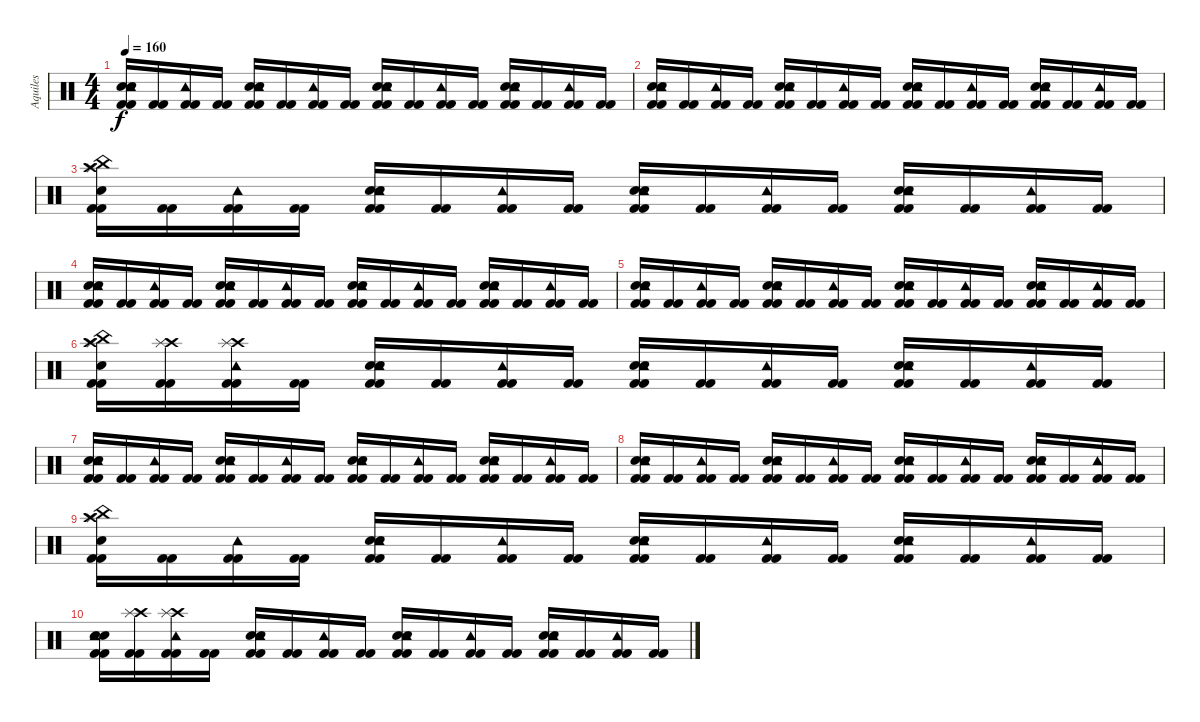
\track ("Aquiles" "Aquiles") {instrument percussion}
\staff {score}
\articulation defaults
\ts (4 4)
\tempo 160
\clef neutral
\ks c
("Kick (hit) 2" "Kick (hit) 2" "Electric Snare (hit)" "Electric Snare (hit)" "Tambourine (hit)").16{dy f} ("Kick (hit) 2" "Kick (hit) 2").16 ("Kick (hit) 2" "Kick (hit) 2" "Tambourine (hit)").16 ("Kick (hit) 2" "Kick (hit) 2").16 ("Kick (hit) 2" "Kick (hit) 2" "Electric Snare (hit)" "Electric Snare (hit)" "Tambourine (hit)").16 ("Kick (hit) 2" "Kick (hit) 2").16 ("Kick (hit) 2" "Kick (hit) 2" "Tambourine (hit)").16 ("Kick (hit) 2" "Kick (hit) 2").16 ("Kick (hit) 2" "Kick (hit) 2" "Electric Snare (hit)" "Electric Snare (hit)" "Tambourine (hit)").16 ("Kick (hit) 2" "Kick (hit) 2").16 ("Kick (hit) 2" "Kick (hit) 2" "Tambourine (hit)").16 ("Kick (hit) 2" "Kick (hit) 2").16 ("Kick (hit) 2" "Kick (hit) 2" "Electric Snare (hit)" "Electric Snare (hit)" "Tambourine (hit)").16 ("Kick (hit) 2" "Kick (hit) 2").16 ("Kick (hit) 2" "Kick (hit) 2" "Tambourine (hit)").16 ("Kick (hit) 2" "Kick (hit) 2").16 |
("Kick (hit) 2" "Kick (hit) 2" "Electric Snare (hit)" "Electric Snare (hit)" "Tambourine (hit)").16 ("Kick (hit) 2" "Kick (hit) 2").16 ("Kick (hit) 2" "Kick (hit) 2" "Tambourine (hit)").16 ("Kick (hit) 2" "Kick (hit) 2").16 ("Kick (hit) 2" "Kick (hit) 2" "Electric Snare (hit)" "Electric Snare (hit)" "Tambourine (hit)").16 ("Kick (hit) 2" "Kick (hit) 2").16 ("Kick (hit) 2" "Kick (hit) 2" "Tambourine (hit)").16 ("Kick (hit) 2" "Kick (hit) 2").16 ("Kick (hit) 2" "Kick (hit) 2" "Electric Snare (hit)" "Electric Snare (hit)" "Tambourine (hit)").16 ("Kick (hit) 2" "Kick (hit) 2").16 ("Kick (hit) 2" "Kick (hit) 2" "Tambourine (hit)").16 ("Kick (hit) 2" "Kick (hit) 2").16 ("Kick (hit) 2" "Kick (hit) 2" "Electric Snare (hit)" "Electric Snare (hit)" "Tambourine (hit)").16 ("Kick (hit) 2" "Kick (hit) 2").16 ("Kick (hit) 2" "Kick (hit) 2" "Tambourine (hit)").16 ("Kick (hit) 2" "Kick (hit) 2").16 |
("Kick (hit) 2" "Kick (hit) 2" "Electric Snare (hit)" "Crash high (hit)" "Splash (hit)" "China (hit)").16 ("Kick (hit) 2" "Kick (hit) 2").16 ("Kick (hit) 2" "Kick (hit) 2" "Tambourine (hit)").16 ("Kick (hit) 2" "Kick (hit) 2").16 ("Kick (hit) 2" "Kick (hit) 2" "Electric Snare (hit)" "Electric Snare (hit)" "Tambourine (hit)").16 ("Kick (hit) 2" "Kick (hit) 2").16 ("Kick (hit) 2" "Kick (hit) 2" "Tambourine (hit)").16 ("Kick (hit) 2" "Kick (hit) 2").16 ("Kick (hit) 2" "Kick (hit) 2" "Electric Snare (hit)" "Electric Snare (hit)" "Tambourine (hit)").16 ("Kick (hit) 2" "Kick (hit) 2").16 ("Kick (hit) 2" "Kick (hit) 2" "Tambourine (hit)").16 ("Kick (hit) 2" "Kick (hit) 2").16 ("Kick (hit) 2" "Kick (hit) 2" "Electric Snare (hit)" "Electric Snare (hit)" "Tambourine (hit)").16 ("Kick (hit) 2" "Kick (hit) 2").16 ("Kick (hit) 2" "Kick (hit) 2" "Tambourine (hit)").16 ("Kick (hit) 2" "Kick (hit) 2").16 |
("Kick (hit) 2" "Kick (hit) 2" "Electric Snare (hit)" "Electric Snare (hit)" "Tambourine (hit)").16 ("Kick (hit) 2" "Kick (hit) 2").16 ("Kick (hit) 2" "Kick (hit) 2" "Tambourine (hit)").16 ("Kick (hit) 2" "Kick (hit) 2").16 ("Kick (hit) 2" "Kick (hit) 2" "Electric Snare (hit)" "Electric Snare (hit)" "Tambourine (hit)").16 ("Kick (hit) 2" "Kick (hit) 2").16 ("Kick (hit) 2" "Kick (hit) 2" "Tambourine (hit)").16 ("Kick (hit) 2" "Kick (hit) 2").16 ("Kick (hit) 2" "Kick (hit) 2" "Electric Snare (hit)" "Electric Snare (hit)" "Tambourine (hit)").16 ("Kick (hit) 2" "Kick (hit) 2").16 ("Kick (hit) 2" "Kick (hit) 2" "Tambourine (hit)").16 ("Kick (hit) 2" "Kick (hit) 2").16 ("Kick (hit) 2" "Kick (hit) 2" "Electric Snare (hit)" "Electric Snare (hit)" "Tambourine (hit)").16 ("Kick (hit) 2" "Kick (hit) 2").16 ("Kick (hit) 2" "Kick (hit) 2" "Tambourine (hit)").16 ("Kick (hit) 2" "Kick (hit) 2").16 |
("Kick (hit) 2" "Kick (hit) 2" "Electric Snare (hit)" "Electric Snare (hit)" "Tambourine (hit)").16 ("Kick (hit) 2" "Kick (hit) 2").16 ("Kick (hit) 2" "Kick (hit) 2" "Tambourine (hit)").16 ("Kick (hit) 2" "Kick (hit) 2").16 ("Kick (hit) 2" "Kick (hit) 2" "Electric Snare (hit)" "Electric Snare (hit)" "Tambourine (hit)").16 ("Kick (hit) 2" "Kick (hit) 2").16 ("Kick (hit) 2" "Kick (hit) 2" "Tambourine (hit)").16 ("Kick (hit) 2" "Kick (hit) 2").16 ("Kick (hit) 2" "Kick (hit) 2" "Electric Snare (hit)" "Electric Snare (hit)" "Tambourine (hit)").16 ("Kick (hit) 2" "Kick (hit) 2").16 ("Kick (hit) 2" "Kick (hit) 2" "Tambourine (hit)").16 ("Kick (hit) 2" "Kick (hit) 2").16 ("Kick (hit) 2" "Kick (hit) 2" "Electric Snare (hit)" "Electric Snare (hit)" "Tambourine (hit)").16 ("Kick (hit) 2" "Kick (hit) 2").16 ("Kick (hit) 2" "Kick (hit) 2" "Tambourine (hit)").16 ("Kick (hit) 2" "Kick (hit) 2").16 |
("Kick (hit) 2" "Kick (hit) 2" "Electric Snare (hit)" "Crash high (hit)" "Splash (hit)" "China (hit)").16 ("Kick (hit) 2" "Kick (hit) 2" "Crash high (hit)" "Splash (hit)").16 ("Kick (hit) 2" "Kick (hit) 2" "Crash high (hit)" "Tambourine (hit)" "Splash (hit)").16 ("Kick (hit) 2" "Kick (hit) 2").16 ("Kick (hit) 2" "Kick (hit) 2" "Electric Snare (hit)" "Electric Snare (hit)" "Tambourine (hit)").16 ("Kick (hit) 2" "Kick (hit) 2").16 ("Kick (hit) 2" "Kick (hit) 2" "Tambourine (hit)").16 ("Kick (hit) 2" "Kick (hit) 2").16 ("Kick (hit) 2" "Kick (hit) 2" "Electric Snare (hit)" "Electric Snare (hit)" "Tambourine (hit)").16 ("Kick (hit) 2" "Kick (hit) 2").16 ("Kick (hit) 2" "Kick (hit) 2" "Tambourine (hit)").16 ("Kick (hit) 2" "Kick (hit) 2").16 ("Kick (hit) 2" "Kick (hit) 2" "Electric Snare (hit)" "Electric Snare (hit)" "Tambourine (hit)").16 ("Kick (hit) 2" "Kick (hit) 2").16 ("Kick (hit) 2" "Kick (hit) 2" "Tambourine (hit)").16 ("Kick (hit) 2" "Kick (hit) 2").16 |
("Kick (hit) 2" "Kick (hit) 2" "Electric Snare (hit)" "Electric Snare (hit)" "Tambourine (hit)").16 ("Kick (hit) 2" "Kick (hit) 2").16 ("Kick (hit) 2" "Kick (hit) 2" "Tambourine (hit)").16 ("Kick (hit) 2" "Kick (hit) 2").16 ("Kick (hit) 2" "Kick (hit) 2" "Electric Snare (hit)" "Electric Snare (hit)" "Tambourine (hit)").16 ("Kick (hit) 2" "Kick (hit) 2").16 ("Kick (hit) 2" "Kick (hit) 2" "Tambourine (hit)").16 ("Kick (hit) 2" "Kick (hit) 2").16 ("Kick (hit) 2" "Kick (hit) 2" "Electric Snare (hit)" "Electric Snare (hit)" "Tambourine (hit)").16 ("Kick (hit) 2" "Kick (hit) 2").16 ("Kick (hit) 2" "Kick (hit) 2" "Tambourine (hit)").16 ("Kick (hit) 2" "Kick (hit) 2").16 ("Kick (hit) 2" "Kick (hit) 2" "Electric Snare (hit)" "Electric Snare (hit)" "Tambourine (hit)").16 ("Kick (hit) 2" "Kick (hit) 2").16 ("Kick (hit) 2" "Kick (hit) 2" "Tambourine (hit)").16 ("Kick (hit) 2" "Kick (hit) 2").16 |
("Kick (hit) 2" "Kick (hit) 2" "Electric Snare (hit)" "Electric Snare (hit)" "Tambourine (hit)").16 ("Kick (hit) 2" "Kick (hit) 2").16 ("Kick (hit) 2" "Kick (hit) 2" "Tambourine (hit)").16 ("Kick (hit) 2" "Kick (hit) 2").16 ("Kick (hit) 2" "Kick (hit) 2" "Electric Snare (hit)" "Electric Snare (hit)" "Tambourine (hit)").16 ("Kick (hit) 2" "Kick (hit) 2").16 ("Kick (hit) 2" "Kick (hit) 2" "Tambourine (hit)").16 ("Kick (hit) 2" "Kick (hit) 2").16 ("Kick (hit) 2" "Kick (hit) 2" "Electric Snare (hit)" "Electric Snare (hit)" "Tambourine (hit)").16 ("Kick (hit) 2" "Kick (hit) 2").16 ("Kick (hit) 2" "Kick (hit) 2" "Tambourine (hit)").16 ("Kick (hit) 2" "Kick (hit) 2").16 ("Kick (hit) 2" "Kick (hit) 2" "Electric Snare (hit)" "Electric Snare (hit)" "Tambourine (hit)").16 ("Kick (hit) 2" "Kick (hit) 2").16 ("Kick (hit) 2" "Kick (hit) 2" "Tambourine (hit)").16 ("Kick (hit) 2" "Kick (hit) 2").16 |
("Kick (hit) 2" "Kick (hit) 2" "Electric Snare (hit)" "Crash high (hit)" "Splash (hit)" "China (hit)").16 ("Kick (hit) 2" "Kick (hit) 2").16 ("Kick (hit) 2" "Kick (hit) 2" "Tambourine (hit)").16 ("Kick (hit) 2" "Kick (hit) 2").16 ("Kick (hit) 2" "Kick (hit) 2" "Electric Snare (hit)" "Electric Snare (hit)" "Tambourine (hit)").16 ("Kick (hit) 2" "Kick (hit) 2").16 ("Kick (hit) 2" "Kick (hit) 2" "Tambourine (hit)").16 ("Kick (hit) 2" "Kick (hit) 2").16 ("Kick (hit) 2" "Kick (hit) 2" "Electric Snare (hit)" "Electric Snare (hit)" "Tambourine (hit)").16 ("Kick (hit) 2" "Kick (hit) 2").16 ("Kick (hit) 2" "Kick (hit) 2" "Tambourine (hit)").16 ("Kick (hit) 2" "Kick (hit) 2").16 ("Kick (hit) 2" "Kick (hit) 2" "Electric Snare (hit)" "Electric Snare (hit)" "Tambourine (hit)").16 ("Kick (hit) 2" "Kick (hit) 2").16 ("Kick (hit) 2" "Kick (hit) 2" "Tambourine (hit)").16 ("Kick (hit) 2" "Kick (hit) 2").16 |
("Kick (hit) 2" "Kick (hit) 2" "Electric Snare (hit)" "Electric Snare (hit)" "Tambourine (hit)").16 ("Kick (hit) 2" "Kick (hit) 2" "Crash high (hit)" "Splash (hit)").16 ("Kick (hit) 2" "Kick (hit) 2" "Crash high (hit)" "Tambourine (hit)" "Splash (hit)").16 ("Kick (hit) 2" "Kick (hit) 2").16 ("Kick (hit) 2" "Kick (hit) 2" "Electric Snare (hit)" "Electric Snare (hit)" "Tambourine (hit)").16 ("Kick (hit) 2" "Kick (hit) 2").16 ("Kick (hit) 2" "Kick (hit) 2" "Tambourine (hit)").16 ("Kick (hit) 2" "Kick (hit) 2").16 ("Kick (hit) 2" "Kick (hit) 2" "Electric Snare (hit)" "Electric Snare (hit)" "Tambourine (hit)").16 ("Kick (hit) 2" "Kick (hit) 2").16 ("Kick (hit) 2" "Kick (hit) 2" "Tambourine (hit)").16 ("Kick (hit) 2" "Kick (hit) 2").16 ("Kick (hit) 2" "Kick (hit) 2" "Electric Snare (hit)" "Electric Snare (hit)" "Tambourine (hit)").16 ("Kick (hit) 2" "Kick (hit) 2").16 ("Kick (hit) 2" "Kick (hit) 2" "Tambourine (hit)").16 ("Kick (hit) 2" "Kick (hit) 2").16
